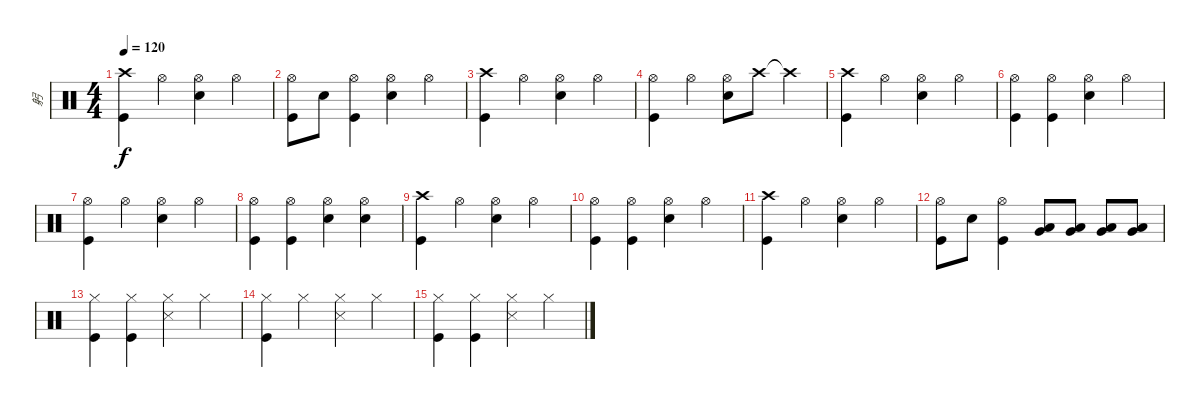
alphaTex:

\track ("躬" "躬") {instrument percussion}
\staff {score}
\articulation defaults
\ts (4 4)
\tempo 120
\clef neutral
\ks c
("Crash high (hit)" "Kick (hit)").4{dy f} "Hi-Hat (open)".4 ("Hi-Hat (open)" "Snare (hit) 2").4 "Hi-Hat (open)".4 |
("Hi-Hat (open)" "Kick (hit)").8 "Snare (hit) 2".8 ("Hi-Hat (open)" "Kick (hit)").4 ("Hi-Hat (open)" "Snare (hit) 2").4 "Hi-Hat (open)".4 |
("Crash high (hit)" "Kick (hit)").4 "Hi-Hat (open)".4 ("Hi-Hat (open)" "Snare (hit) 2").4 "Hi-Hat (open)".4 |
("Hi-Hat (open)" "Kick (hit)").4 "Hi-Hat (open)".4 ("Hi-Hat (open)" "Snare (hit) 2").8 "Crash high (hit)".8 "Crash high (hit)"{t}.4 |
("Crash high (hit)" "Kick (hit)").4 "Hi-Hat (open)".4 ("Hi-Hat (open)" "Snare (hit) 2").4 "Hi-Hat (open)".4 |
("Hi-Hat (open)" "Kick (hit)").4 ("Hi-Hat (open)" "Kick (hit)").4 ("Hi-Hat (open)" "Snare (hit) 2").4 "Hi-Hat (open)".4 |
("Hi-Hat (open)" "Kick (hit)").4 "Hi-Hat (open)".4 ("Hi-Hat (open)" "Snare (hit) 2").4 "Hi-Hat (open)".4 |
("Hi-Hat (open)" "Kick (hit)").4 ("Hi-Hat (open)" "Kick (hit)").4 ("Hi-Hat (open)" "Snare (hit) 2").4 ("Hi-Hat (open)" "Snare (hit) 2").4 |
("Crash high (hit)" "Kick (hit)").4 "Hi-Hat (open)".4 ("Hi-Hat (open)" "Snare (hit) 2").4 "Hi-Hat (open)".4 |
("Hi-Hat (open)" "Kick (hit)").4 ("Hi-Hat (open)" "Kick (hit)").4 ("Hi-Hat (open)" "Snare (hit) 2").4 "Hi-Hat (open)".4 |
("Crash high (hit)" "Kick (hit)").4 "Hi-Hat (open)".4 ("Hi-Hat (open)" "Snare (hit) 2").4 "Hi-Hat (open)".4 |
("Hi-Hat (open)" "Kick (hit)").8 "Snare (hit) 2".8 ("Hi-Hat (open)" "Kick (hit)").4 ("Low Tom (hit)" "Very Low Tom (hit)").8 ("Low Tom (hit)" "Very Low Tom (hit)").8 ("Low Tom (hit)" "Very Low Tom (hit)").8 ("Low Tom (hit)" "Very Low Tom (hit)").8 |
("Hi-Hat (closed)" "Kick (hit)").4 ("Hi-Hat (closed)" "Kick (hit)").4 ("Hi-Hat (closed)" "Snare (side stick) 3").4 "Hi-Hat (closed)".4 |
("Hi-Hat (closed)" "Kick (hit)").4 "Hi-Hat (closed)".4 ("Hi-Hat (closed)" "Snare (side stick) 3").4 "Hi-Hat (closed)".4 |
("Hi-Hat (closed)" "Kick (hit)").4 ("Hi-Hat (closed)" "Kick (hit)").4 ("Hi-Hat (closed)" "Snare (side stick) 3").4 "Hi-Hat (closed)".4
